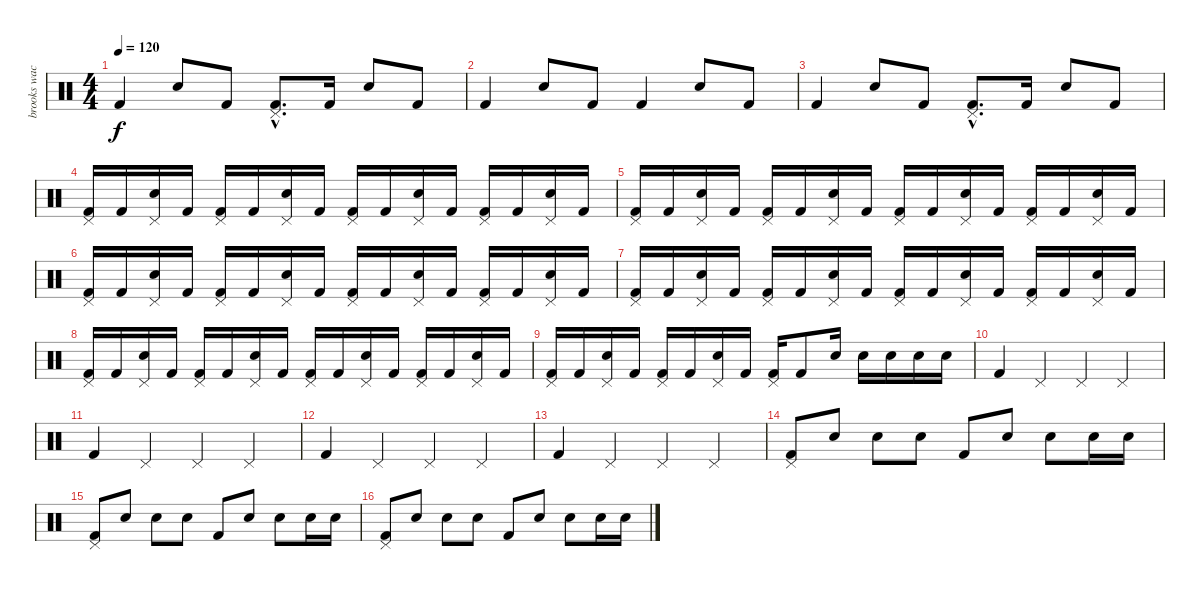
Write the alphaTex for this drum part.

\track ("brooks wackerman" "brooks wac") {instrument percussion}
\staff {score}
\articulation defaults
\ts (4 4)
\tempo 120
\clef neutral
\ks c "Kick (hit) 2".4{dy f} "Electric Snare (hit)".8 "Kick (hit) 2".8
("Pedal Hi-Hat (hit)"{hac} "Kick (hit) 2"{hac}).8{d} "Kick (hit) 2".16 "Electric Snare (hit)".8 "Kick (hit) 2".8 |
"Kick (hit) 2".4 "Electric Snare (hit)".8 "Kick (hit) 2".8 "Kick (hit) 2".4 "Electric Snare (hit)".8 "Kick (hit) 2".8 |
"Kick (hit) 2".4 "Electric Snare (hit)".8 "Kick (hit) 2".8 ("Pedal Hi-Hat (hit)"{hac} "Kick (hit) 2"{hac}).8{d} "Kick (hit) 2".16 "Electric Snare (hit)".8 "Kick (hit) 2".8 |
("Pedal Hi-Hat (hit)" "Kick (hit) 2").16 "Kick (hit) 2".16 ("Pedal Hi-Hat (hit)" "Electric Snare (hit)").16 "Kick (hit) 2".16 ("Pedal Hi-Hat (hit)" "Kick (hit) 2").16 "Kick (hit) 2".16 ("Pedal Hi-Hat (hit)" "Electric Snare (hit)").16 "Kick (hit) 2".16 ("Pedal Hi-Hat (hit)" "Kick (hit) 2").16 "Kick (hit) 2".16 ("Pedal Hi-Hat (hit)" "Electric Snare (hit)").16 "Kick (hit) 2".16 ("Pedal Hi-Hat (hit)" "Kick (hit) 2").16 "Kick (hit) 2".16 ("Pedal Hi-Hat (hit)" "Electric Snare (hit)").16 "Kick (hit) 2".16 |
("Pedal Hi-Hat (hit)" "Kick (hit) 2").16 "Kick (hit) 2".16 ("Pedal Hi-Hat (hit)" "Electric Snare (hit)").16 "Kick (hit) 2".16 ("Pedal Hi-Hat (hit)" "Kick (hit) 2").16 "Kick (hit) 2".16 ("Pedal Hi-Hat (hit)" "Electric Snare (hit)").16 "Kick (hit) 2".16 ("Pedal Hi-Hat (hit)" "Kick (hit) 2").16 "Kick (hit) 2".16 ("Pedal Hi-Hat (hit)" "Electric Snare (hit)").16 "Kick (hit) 2".16 ("Pedal Hi-Hat (hit)" "Kick (hit) 2").16 "Kick (hit) 2".16 ("Pedal Hi-Hat (hit)" "Electric Snare (hit)").16 "Kick (hit) 2".16 |
("Pedal Hi-Hat (hit)" "Kick (hit) 2").16 "Kick (hit) 2".16 ("Pedal Hi-Hat (hit)" "Electric Snare (hit)").16 "Kick (hit) 2".16 ("Pedal Hi-Hat (hit)" "Kick (hit) 2").16 "Kick (hit) 2".16 ("Pedal Hi-Hat (hit)" "Electric Snare (hit)").16 "Kick (hit) 2".16 ("Pedal Hi-Hat (hit)" "Kick (hit) 2").16 "Kick (hit) 2".16 ("Pedal Hi-Hat (hit)" "Electric Snare (hit)").16 "Kick (hit) 2".16 ("Pedal Hi-Hat (hit)" "Kick (hit) 2").16 "Kick (hit) 2".16 ("Pedal Hi-Hat (hit)" "Electric Snare (hit)").16 "Kick (hit) 2".16 |
("Pedal Hi-Hat (hit)" "Kick (hit) 2").16 "Kick (hit) 2".16 ("Pedal Hi-Hat (hit)" "Electric Snare (hit)").16 "Kick (hit) 2".16 ("Pedal Hi-Hat (hit)" "Kick (hit) 2").16 "Kick (hit) 2".16 ("Pedal Hi-Hat (hit)" "Electric Snare (hit)").16 "Kick (hit) 2".16 ("Pedal Hi-Hat (hit)" "Kick (hit) 2").16 "Kick (hit) 2".16 ("Pedal Hi-Hat (hit)" "Electric Snare (hit)").16 "Kick (hit) 2".16 ("Pedal Hi-Hat (hit)" "Kick (hit) 2").16 "Kick (hit) 2".16 ("Pedal Hi-Hat (hit)" "Electric Snare (hit)").16 "Kick (hit) 2".16 |
("Pedal Hi-Hat (hit)" "Kick (hit) 2").16 "Kick (hit) 2".16 ("Pedal Hi-Hat (hit)" "Electric Snare (hit)").16 "Kick (hit) 2".16 ("Pedal Hi-Hat (hit)" "Kick (hit) 2").16 "Kick (hit) 2".16 ("Pedal Hi-Hat (hit)" "Electric Snare (hit)").16 "Kick (hit) 2".16 ("Pedal Hi-Hat (hit)" "Kick (hit) 2").16 "Kick (hit) 2".16 ("Pedal Hi-Hat (hit)" "Electric Snare (hit)").16 "Kick (hit) 2".16 ("Pedal Hi-Hat (hit)" "Kick (hit) 2").16 "Kick (hit) 2".16 ("Pedal Hi-Hat (hit)" "Electric Snare (hit)").16 "Kick (hit) 2".16 |
("Pedal Hi-Hat (hit)" "Kick (hit) 2").16 "Kick (hit) 2".16 ("Pedal Hi-Hat (hit)" "Electric Snare (hit)").16 "Kick (hit) 2".16 ("Pedal Hi-Hat (hit)" "Kick (hit) 2").16 "Kick (hit) 2".16 ("Pedal Hi-Hat (hit)" "Electric Snare (hit)").16 "Kick (hit) 2".16 ("Pedal Hi-Hat (hit)" "Kick (hit) 2").16 "Kick (hit) 2".8 "Electric Snare (hit)".16 "Electric Snare (hit)".16 "Electric Snare (hit)".16 "Electric Snare (hit)".16 "Electric Snare (hit)".16 |
"Kick (hit) 2".4 "Pedal Hi-Hat (hit)".4 "Pedal Hi-Hat (hit)".4 "Pedal Hi-Hat (hit)".4 |
"Kick (hit) 2".4 "Pedal Hi-Hat (hit)".4 "Pedal Hi-Hat (hit)".4 "Pedal Hi-Hat (hit)".4 |
"Kick (hit) 2".4 "Pedal Hi-Hat (hit)".4 "Pedal Hi-Hat (hit)".4 "Pedal Hi-Hat (hit)".4 |
"Kick (hit) 2".4 "Pedal Hi-Hat (hit)".4 "Pedal Hi-Hat (hit)".4 "Pedal Hi-Hat (hit)".4 |
("Pedal Hi-Hat (hit)" "Kick (hit) 2").8 "Snare (hit)"{x}.8 "Electric Snare (hit)".8 "Snare (hit)"{x}.8 "Kick (hit) 2".8 "Snare (hit)"{x}.8 "Electric Snare (hit)".8 "Snare (hit)"{x}.16 "Electric Snare (hit)".16 |
("Pedal Hi-Hat (hit)" "Kick (hit) 2").8 "Snare (hit)"{x}.8 "Electric Snare (hit)".8 "Snare (hit)"{x}.8 "Kick (hit) 2".8 "Snare (hit)"{x}.8 "Electric Snare (hit)".8 "Snare (hit)"{x}.16 "Electric Snare (hit)".16 |
("Pedal Hi-Hat (hit)" "Kick (hit) 2").8 "Snare (hit)"{x}.8 "Electric Snare (hit)".8 "Snare (hit)"{x}.8 "Kick (hit) 2".8 "Snare (hit)"{x}.8 "Electric Snare (hit)".8 "Snare (hit)"{x}.16 "Electric Snare (hit)".16
